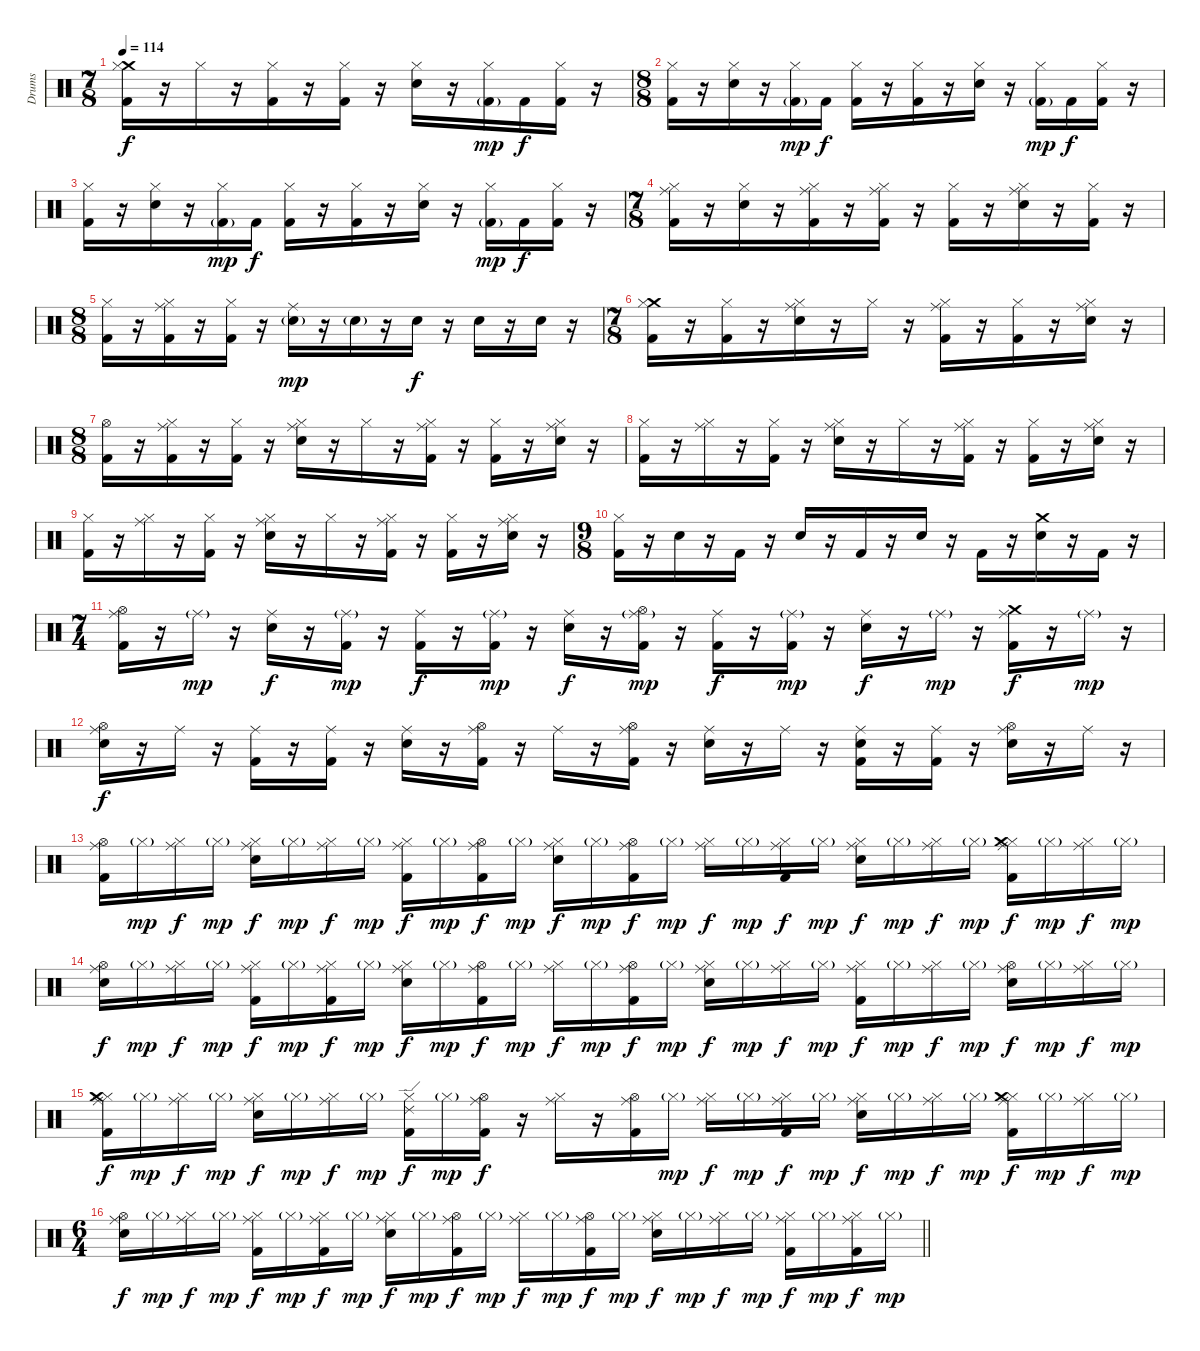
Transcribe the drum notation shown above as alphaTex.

\track ("Drums" "Drums") {instrument percussion}
\staff {score}
\articulation defaults
\ts (7 8)
\tempo 114
\clef neutral
\ks c
("Crash medium (hit)" "Hi-Hat (closed)" "Kick (hit) 2").16{dy f} r.16 "Hi-Hat (closed)".16 r.16 ("Hi-Hat (closed)" "Kick (hit) 2").16 r.16 ("Hi-Hat (closed)" "Kick (hit) 2").16 r.16 ("Hi-Hat (closed)" "Snare (hit) 2").16 r.16 ("Hi-Hat (closed)" "Kick (hit) 2"{g}).16{dy mp} "Kick (hit) 2".16{dy f} ("Hi-Hat (closed)" "Kick (hit) 2").16 r.16 |
\ts (8 8)
("Hi-Hat (closed)" "Kick (hit) 2").16 r.16 ("Hi-Hat (closed)" "Snare (hit) 2").16 r.16 ("Hi-Hat (closed)" "Kick (hit) 2"{g}).16{dy mp} "Kick (hit) 2".16{dy f} ("Hi-Hat (closed)" "Kick (hit) 2").16 r.16 ("Hi-Hat (closed)" "Kick (hit) 2").16 r.16 ("Hi-Hat (closed)" "Snare (hit) 2").16 r.16 ("Hi-Hat (closed)" "Kick (hit) 2"{g}).16{dy mp} "Kick (hit) 2".16{dy f} ("Hi-Hat (closed)" "Kick (hit) 2").16 r.16 |
("Hi-Hat (closed)" "Kick (hit) 2").16 r.16 ("Hi-Hat (closed)" "Snare (hit) 2").16 r.16 ("Hi-Hat (closed)" "Kick (hit) 2"{g}).16{dy mp} "Kick (hit) 2".16{dy f} ("Hi-Hat (closed)" "Kick (hit) 2").16 r.16 ("Hi-Hat (closed)" "Kick (hit) 2").16 r.16 ("Hi-Hat (closed)" "Snare (hit) 2").16 r.16 ("Hi-Hat (closed)" "Kick (hit) 2"{g}).16{dy mp} "Kick (hit) 2".16{dy f} ("Hi-Hat (closed)" "Kick (hit) 2").16 r.16 |
\ts (7 8)
("Ride (middle)" "Hi-Hat (closed)" "Kick (hit) 2").16 r.16 ("Hi-Hat (closed)" "Snare (hit) 2").16 r.16 ("Ride (middle)" "Hi-Hat (closed)" "Kick (hit) 2").16 r.16 ("Ride (middle)" "Hi-Hat (closed)" "Kick (hit) 2").16 r.16 ("Hi-Hat (closed)" "Kick (hit) 2").16 r.16 ("Ride (middle)" "Hi-Hat (closed)" "Snare (hit) 2").16 r.16 ("Hi-Hat (closed)" "Kick (hit) 2").16 r.16 |
\ts (8 8)
("Hi-Hat (closed)" "Kick (hit) 2").16 r.16 ("Ride (middle)" "Hi-Hat (closed)" "Kick (hit) 2").16 r.16 ("Hi-Hat (closed)" "Kick (hit) 2").16 r.16 ("Ride (middle)" "Snare (hit) 2"{g}).16{dy mp} r.16 "Snare (hit) 2"{g}.16 r.16 "Snare (hit) 2".16{dy f} r.16 "Snare (hit) 2".16 r.16 "Snare (hit) 2".16 r.16 |
\ts (7 8)
("Crash medium (hit)" "Hi-Hat (closed)" "Kick (hit) 2").16 r.16 ("Hi-Hat (closed)" "Kick (hit) 2").16 r.16 ("Ride (middle)" "Hi-Hat (closed)" "Snare (hit) 2").16 r.16 "Hi-Hat (closed)".16 r.16 ("Ride (middle)" "Hi-Hat (closed)" "Kick (hit) 2").16 r.16 ("Hi-Hat (closed)" "Kick (hit) 2").16 r.16 ("Ride (middle)" "Hi-Hat (closed)" "Snare (hit) 2").16 r.16 |
\ts (8 8)
("Hi-Hat (open)" "Kick (hit) 2").16 r.16 ("Ride (middle)" "Hi-Hat (closed)" "Kick (hit) 2").16 r.16 ("Hi-Hat (closed)" "Kick (hit) 2").16 r.16 ("Ride (middle)" "Hi-Hat (closed)" "Snare (hit) 2").16 r.16 "Hi-Hat (closed)".16 r.16 ("Ride (middle)" "Hi-Hat (closed)" "Kick (hit) 2").16 r.16 ("Hi-Hat (closed)" "Kick (hit) 2").16 r.16 ("Ride (middle)" "Hi-Hat (closed)" "Snare (hit) 2").16 r.16 |
("Hi-Hat (closed)" "Kick (hit) 2").16 r.16 ("Ride (middle)" "Hi-Hat (closed)").16 r.16 ("Hi-Hat (closed)" "Kick (hit) 2").16 r.16 ("Ride (middle)" "Hi-Hat (closed)" "Snare (hit) 2").16 r.16 "Hi-Hat (closed)".16 r.16 ("Ride (middle)" "Hi-Hat (closed)" "Kick (hit) 2").16 r.16 ("Hi-Hat (closed)" "Kick (hit) 2").16 r.16 ("Ride (middle)" "Hi-Hat (closed)" "Snare (hit) 2").16 r.16 |
("Hi-Hat (closed)" "Kick (hit) 2").16 r.16 ("Ride (middle)" "Hi-Hat (closed)").16 r.16 ("Hi-Hat (closed)" "Kick (hit) 2").16 r.16 ("Ride (middle)" "Hi-Hat (closed)" "Snare (hit) 2").16 r.16 "Hi-Hat (closed)".16 r.16 ("Ride (middle)" "Hi-Hat (closed)" "Kick (hit) 2").16 r.16 ("Hi-Hat (closed)" "Kick (hit) 2").16 r.16 ("Ride (middle)" "Hi-Hat (closed)" "Snare (hit) 2").16 r.16 |
\ts (9 8)
("Hi-Hat (closed)" "Kick (hit) 2").16 r.16 "Snare (hit) 2".16 r.16 "Kick (hit) 2".16 r.16 "Snare (hit) 2".16 r.16 "Kick (hit) 2".16 r.16 "Snare (hit) 2".16 r.16 "Kick (hit) 2".16 r.16 ("Crash medium (hit)" "Snare (hit) 2").16 r.16 "Kick (hit) 2".16 r.16 |
\ts (7 4)
("Ride (middle)" "Hi-Hat (open)" "Kick (hit) 2").16 r.16 "Ride (middle)"{g}.16{dy mp} r.16 ("Ride (middle)" "Snare (hit) 2").16{dy f} r.16 ("Ride (middle)"{g} "Kick (hit) 2").16{dy mp} r.16 ("Ride (middle)" "Kick (hit) 2").16{dy f} r.16 ("Ride (middle)"{g} "Kick (hit) 2").16{dy mp} r.16 ("Ride (middle)" "Snare (hit) 2").16{dy f} r.16 ("Ride (middle)"{g} "Hi-Hat (open)" "Kick (hit) 2").16{dy mp} r.16 ("Ride (middle)" "Kick (hit) 2").16{dy f} r.16 ("Ride (middle)"{g} "Kick (hit) 2").16{dy mp} r.16 ("Ride (middle)" "Snare (hit) 2").16{dy f} r.16 "Ride (middle)"{g}.16{dy mp} r.16 ("Ride (middle)" "Crash medium (hit)" "Kick (hit) 2").16{dy f} r.16 "Ride (middle)"{g}.16{dy mp} r.16 |
("Ride (middle)" "Hi-Hat (open)" "Snare (hit) 2").16{dy f} r.16 "Ride (middle)".16 r.16 ("Ride (middle)" "Kick (hit) 2").16 r.16 ("Ride (middle)" "Kick (hit) 2").16 r.16 ("Ride (middle)" "Snare (hit) 2").16 r.16 ("Ride (middle)" "Hi-Hat (open)" "Kick (hit) 2").16 r.16 "Ride (middle)".16 r.16 ("Ride (middle)" "Hi-Hat (open)" "Kick (hit) 2").16 r.16 ("Ride (middle)" "Snare (hit) 2").16 r.16 "Ride (middle)".16 r.16 ("Ride (middle)" "Snare (hit) 2" "Kick (hit) 2").16 r.16 ("Ride (middle)" "Kick (hit) 2").16 r.16 ("Ride (middle)" "Hi-Hat (open)" "Snare (hit) 2").16 r.16 "Ride (middle)".16 r.16 |
("Ride (middle)" "Hi-Hat (open)" "Kick (hit) 2").16 "Hi-Hat (closed)"{g}.16{dy mp} ("Ride (middle)" "Hi-Hat (closed)").16{dy f} "Hi-Hat (closed)"{g}.16{dy mp} ("Ride (middle)" "Hi-Hat (closed)" "Snare (hit) 2").16{dy f} "Hi-Hat (closed)"{g}.16{dy mp} ("Ride (middle)" "Hi-Hat (closed)").16{dy f} "Hi-Hat (closed)"{g}.16{dy mp} ("Ride (middle)" "Hi-Hat (closed)" "Kick (hit) 2").16{dy f} "Hi-Hat (closed)"{g}.16{dy mp} ("Ride (middle)" "Hi-Hat (open)" "Kick (hit) 2").16{dy f} "Hi-Hat (closed)"{g}.16{dy mp} ("Ride (middle)" "Hi-Hat (closed)" "Snare (hit) 2").16{dy f} "Hi-Hat (closed)"{g}.16{dy mp} ("Ride (middle)" "Hi-Hat (open)" "Kick (hit) 2").16{dy f} "Hi-Hat (closed)"{g}.16{dy mp} ("Ride (middle)" "Hi-Hat (closed)").16{dy f} "Hi-Hat (closed)"{g}.16{dy mp} ("Ride (middle)" "Hi-Hat (closed)" "Kick (hit) 2").16{dy f} "Hi-Hat (closed)"{g}.16{dy mp} ("Ride (middle)" "Hi-Hat (closed)" "Snare (hit) 2").16{dy f} "Hi-Hat (closed)"{g}.16{dy mp} ("Ride (middle)" "Hi-Hat (closed)").16{dy f} "Hi-Hat (closed)"{g}.16{dy mp} ("Ride (middle)" "Hi-Hat (closed)" "Crash medium (hit)" "Kick (hit) 2").16{dy f} "Hi-Hat (closed)"{g}.16{dy mp} ("Ride (middle)" "Hi-Hat (closed)").16{dy f} "Hi-Hat (closed)"{g}.16{dy mp} |
("Ride (middle)" "Hi-Hat (open)" "Snare (hit) 2").16{dy f} "Hi-Hat (closed)"{g}.16{dy mp} ("Ride (middle)" "Hi-Hat (closed)").16{dy f} "Hi-Hat (closed)"{g}.16{dy mp} ("Ride (middle)" "Hi-Hat (closed)" "Kick (hit) 2").16{dy f} "Hi-Hat (closed)"{g}.16{dy mp} ("Ride (middle)" "Hi-Hat (closed)" "Kick (hit) 2").16{dy f} "Hi-Hat (closed)"{g}.16{dy mp} ("Ride (middle)" "Hi-Hat (closed)" "Snare (hit) 2").16{dy f} "Hi-Hat (closed)"{g}.16{dy mp} ("Ride (middle)" "Hi-Hat (open)" "Kick (hit) 2").16{dy f} "Hi-Hat (closed)"{g}.16{dy mp} ("Ride (middle)" "Hi-Hat (closed)").16{dy f} "Hi-Hat (closed)"{g}.16{dy mp} ("Ride (middle)" "Hi-Hat (open)" "Kick (hit) 2").16{dy f} "Hi-Hat (closed)"{g}.16{dy mp} ("Ride (middle)" "Hi-Hat (closed)" "Snare (hit) 2").16{dy f} "Hi-Hat (closed)"{g}.16{dy mp} ("Ride (middle)" "Hi-Hat (closed)").16{dy f} "Hi-Hat (closed)"{g}.16{dy mp} ("Ride (middle)" "Hi-Hat (closed)" "Kick (hit) 2").16{dy f} "Hi-Hat (closed)"{g}.16{dy mp} ("Ride (middle)" "Hi-Hat (closed)").16{dy f} "Hi-Hat (closed)"{g}.16{dy mp} ("Ride (middle)" "Hi-Hat (open)" "Snare (hit) 2").16{dy f} "Hi-Hat (closed)"{g}.16{dy mp} ("Ride (middle)" "Hi-Hat (closed)").16{dy f} "Hi-Hat (closed)"{g}.16{dy mp} |
("Ride (middle)" "Hi-Hat (closed)" "Crash medium (hit)" "Kick (hit) 2").16{dy f} "Hi-Hat (closed)"{g}.16{dy mp} ("Ride (middle)" "Hi-Hat (closed)").16{dy f} "Hi-Hat (closed)"{g}.16{dy mp} ("Ride (middle)" "Hi-Hat (closed)" "Snare (hit) 2").16{dy f} "Hi-Hat (closed)"{g}.16{dy mp} ("Ride (middle)" "Hi-Hat (closed)").16{dy f} "Hi-Hat (closed)"{g}.16{dy mp} ("Ride (edge) 2" "Hi-Hat (closed)" "Kick (hit) 2").16{dy f} "Hi-Hat (closed)"{g}.16{dy mp} ("Ride (middle)" "Hi-Hat (open)" "Kick (hit) 2").16{dy f} r.16 ("Ride (middle)" "Hi-Hat (closed)").16 r.16 ("Ride (middle)" "Hi-Hat (open)" "Kick (hit) 2").16 "Hi-Hat (closed)"{g}.16{dy mp} ("Ride (middle)" "Hi-Hat (closed)").16{dy f} "Hi-Hat (closed)"{g}.16{dy mp} ("Ride (middle)" "Hi-Hat (closed)" "Kick (hit) 2").16{dy f} "Hi-Hat (closed)"{g}.16{dy mp} ("Ride (middle)" "Hi-Hat (closed)" "Snare (hit) 2").16{dy f} "Hi-Hat (closed)"{g}.16{dy mp} ("Ride (middle)" "Hi-Hat (closed)").16{dy f} "Hi-Hat (closed)"{g}.16{dy mp} ("Ride (middle)" "Hi-Hat (closed)" "Crash medium (hit)" "Kick (hit) 2").16{dy f} "Hi-Hat (closed)"{g}.16{dy mp} ("Ride (middle)" "Hi-Hat (closed)").16{dy f} "Hi-Hat (closed)"{g}.16{dy mp} |
\ts (6 4)
\barLineRight lightlight
("Ride (middle)" "Hi-Hat (open)" "Snare (hit) 2").16{dy f} "Hi-Hat (closed)"{g}.16{dy mp} ("Ride (middle)" "Hi-Hat (closed)").16{dy f} "Hi-Hat (closed)"{g}.16{dy mp} ("Ride (middle)" "Hi-Hat (closed)" "Kick (hit) 2").16{dy f} "Hi-Hat (closed)"{g}.16{dy mp} ("Ride (middle)" "Hi-Hat (closed)" "Kick (hit) 2").16{dy f} "Hi-Hat (closed)"{g}.16{dy mp} ("Ride (middle)" "Hi-Hat (closed)" "Snare (hit) 2").16{dy f} "Hi-Hat (closed)"{g}.16{dy mp} ("Ride (middle)" "Hi-Hat (open)" "Kick (hit) 2").16{dy f} "Hi-Hat (closed)"{g}.16{dy mp} ("Ride (middle)" "Hi-Hat (closed)").16{dy f} "Hi-Hat (closed)"{g}.16{dy mp} ("Ride (middle)" "Hi-Hat (open)" "Kick (hit) 2").16{dy f} "Hi-Hat (closed)"{g}.16{dy mp} ("Ride (middle)" "Hi-Hat (closed)" "Snare (hit) 2").16{dy f} "Hi-Hat (closed)"{g}.16{dy mp} ("Ride (middle)" "Hi-Hat (closed)").16{dy f} "Hi-Hat (closed)"{g}.16{dy mp} ("Ride (middle)" "Hi-Hat (closed)" "Kick (hit) 2").16{dy f} "Hi-Hat (closed)"{g}.16{dy mp} ("Ride (middle)" "Hi-Hat (closed)" "Kick (hit) 2").16{dy f} "Hi-Hat (closed)"{g}.16{dy mp}
